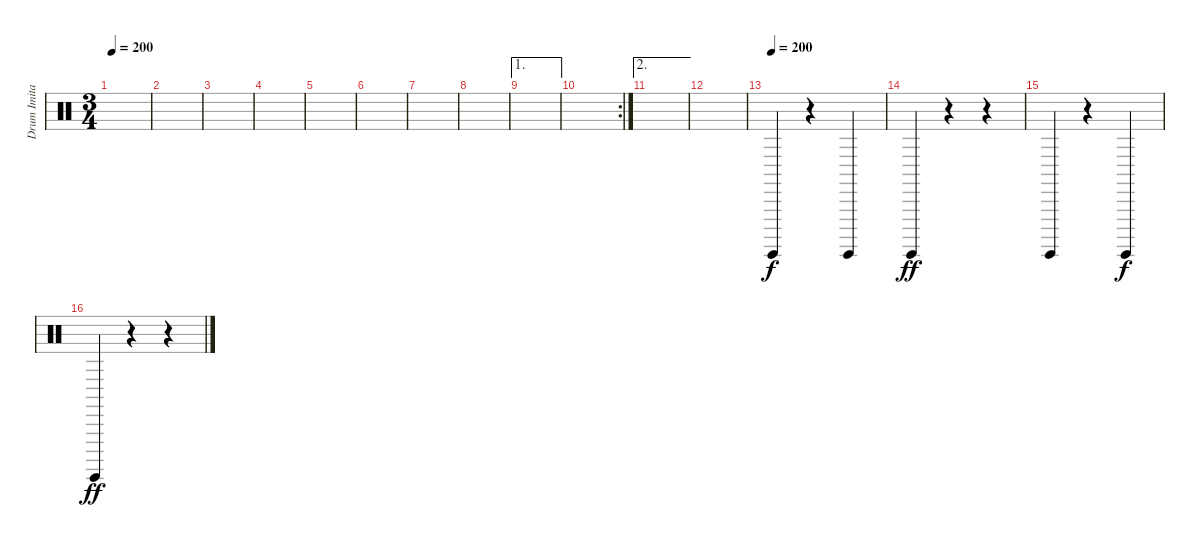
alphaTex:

\track ("Drum Imitation" "Drum Imita") {instrument percussion}
\staff {score}
\articulation defaults
\ts (3 4)
\tempo 200
\clef neutral
\ks c
|
|
|
|
|
|
|
|
\ae 1
|
\rc 2
|
\ae 2
|
|
\tempo (200)
"Surdo (hit)".4 r.4 "Surdo (hit)".4{dy f} |
"Surdo (hit)".4{dy ff} r.4 r.4 |
"Surdo (hit)".4 r.4 "Surdo (hit)".4{dy f} |
"Surdo (hit)".4{dy ff} r.4 r.4
